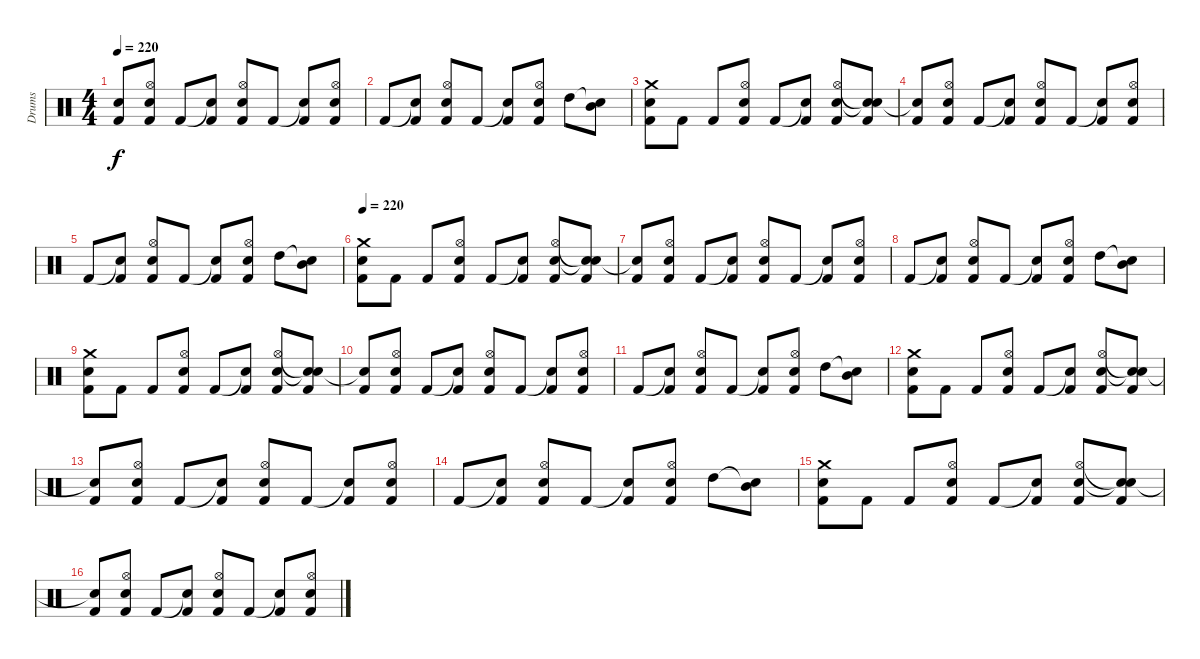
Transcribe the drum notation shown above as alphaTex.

\track ("Drums" "Drums") {instrument percussion}
\staff {score}
\articulation defaults
\ts (4 4)
\tempo 220
\clef neutral
\ks c
("Snare (hit)"{t} "Kick (hit) 2").8{dy f} ("Hi-Hat (open)" "Electric Snare (hit)" "Kick (hit) 2").8 "Kick (hit) 2".8 ("Snare (hit)"{t} "Kick (hit) 2").8 ("Hi-Hat (open)" "Electric Snare (hit)" "Kick (hit) 2").8 "Kick (hit) 2".8 ("Snare (hit)"{t} "Kick (hit) 2").8 ("Hi-Hat (open)" "Electric Snare (hit)" "Kick (hit) 2").8 |
"Kick (hit) 2".8 ("Snare (hit)"{t} "Kick (hit) 2").8 ("Hi-Hat (open)" "Electric Snare (hit)" "Kick (hit) 2").8 "Kick (hit) 2".8 ("Snare (hit)"{t} "Kick (hit) 2").8 ("Hi-Hat (open)" "Electric Snare (hit)" "Kick (hit) 2").8 "High Tom (hit)".8 ("Snare (hit)"{t} "Mid Tom (hit)").8 |
("Crash medium (hit)" "Electric Snare (hit)" "Kick (hit) 2").8 "Kick (hit) 2".8 "Kick (hit) 2".8 ("Hi-Hat (open)" "Electric Snare (hit)" "Kick (hit) 2").8 "Kick (hit) 2".8 ("Snare (hit)"{t} "Kick (hit) 2").8 ("Hi-Hat (open)" "Electric Snare (hit)" "Kick (hit) 2").8 ("Snare (hit)"{t} "Snare (hit)"{t} "Kick (hit) 2").8 |
("Snare (hit)"{t} "Kick (hit) 2").8 ("Hi-Hat (open)" "Electric Snare (hit)" "Kick (hit) 2").8 "Kick (hit) 2".8 ("Snare (hit)"{t} "Kick (hit) 2").8 ("Hi-Hat (open)" "Electric Snare (hit)" "Kick (hit) 2").8 "Kick (hit) 2".8 ("Snare (hit)"{t} "Kick (hit) 2").8 ("Hi-Hat (open)" "Electric Snare (hit)" "Kick (hit) 2").8 |
"Kick (hit) 2".8 ("Snare (hit)"{t} "Kick (hit) 2").8 ("Hi-Hat (open)" "Electric Snare (hit)" "Kick (hit) 2").8 "Kick (hit) 2".8 ("Snare (hit)"{t} "Kick (hit) 2").8 ("Hi-Hat (open)" "Electric Snare (hit)" "Kick (hit) 2").8 "High Tom (hit)".8 ("Snare (hit)"{t} "Mid Tom (hit)").8 |
\tempo 220
("Crash medium (hit)" "Electric Snare (hit)" "Kick (hit) 2").8 "Kick (hit) 2".8 "Kick (hit) 2".8 ("Hi-Hat (open)" "Electric Snare (hit)" "Kick (hit) 2").8 "Kick (hit) 2".8 ("Snare (hit)"{t} "Kick (hit) 2").8 ("Hi-Hat (open)" "Electric Snare (hit)" "Kick (hit) 2").8 ("Snare (hit)"{t} "Snare (hit)"{t} "Kick (hit) 2").8 |
("Snare (hit)"{t} "Kick (hit) 2").8 ("Hi-Hat (open)" "Electric Snare (hit)" "Kick (hit) 2").8 "Kick (hit) 2".8 ("Snare (hit)"{t} "Kick (hit) 2").8 ("Hi-Hat (open)" "Electric Snare (hit)" "Kick (hit) 2").8 "Kick (hit) 2".8 ("Snare (hit)"{t} "Kick (hit) 2").8 ("Hi-Hat (open)" "Electric Snare (hit)" "Kick (hit) 2").8 |
"Kick (hit) 2".8 ("Snare (hit)"{t} "Kick (hit) 2").8 ("Hi-Hat (open)" "Electric Snare (hit)" "Kick (hit) 2").8 "Kick (hit) 2".8 ("Snare (hit)"{t} "Kick (hit) 2").8 ("Hi-Hat (open)" "Electric Snare (hit)" "Kick (hit) 2").8 "High Tom (hit)".8 ("Snare (hit)"{t} "Mid Tom (hit)").8 |
("Crash medium (hit)" "Electric Snare (hit)" "Kick (hit) 2").8 "Kick (hit) 2".8 "Kick (hit) 2".8 ("Hi-Hat (open)" "Electric Snare (hit)" "Kick (hit) 2").8 "Kick (hit) 2".8 ("Snare (hit)"{t} "Kick (hit) 2").8 ("Hi-Hat (open)" "Electric Snare (hit)" "Kick (hit) 2").8 ("Snare (hit)"{t} "Snare (hit)"{t} "Kick (hit) 2").8 |
("Snare (hit)"{t} "Kick (hit) 2").8 ("Hi-Hat (open)" "Electric Snare (hit)" "Kick (hit) 2").8 "Kick (hit) 2".8 ("Snare (hit)"{t} "Kick (hit) 2").8 ("Hi-Hat (open)" "Electric Snare (hit)" "Kick (hit) 2").8 "Kick (hit) 2".8 ("Snare (hit)"{t} "Kick (hit) 2").8 ("Hi-Hat (open)" "Electric Snare (hit)" "Kick (hit) 2").8 |
"Kick (hit) 2".8 ("Snare (hit)"{t} "Kick (hit) 2").8 ("Hi-Hat (open)" "Electric Snare (hit)" "Kick (hit) 2").8 "Kick (hit) 2".8 ("Snare (hit)"{t} "Kick (hit) 2").8 ("Hi-Hat (open)" "Electric Snare (hit)" "Kick (hit) 2").8 "High Tom (hit)".8 ("Snare (hit)"{t} "Mid Tom (hit)").8 |
("Crash medium (hit)" "Electric Snare (hit)" "Kick (hit) 2").8 "Kick (hit) 2".8 "Kick (hit) 2".8 ("Hi-Hat (open)" "Electric Snare (hit)" "Kick (hit) 2").8 "Kick (hit) 2".8 ("Snare (hit)"{t} "Kick (hit) 2").8 ("Hi-Hat (open)" "Electric Snare (hit)" "Kick (hit) 2").8 ("Snare (hit)"{t} "Snare (hit)"{t} "Kick (hit) 2").8 |
("Snare (hit)"{t} "Kick (hit) 2").8 ("Hi-Hat (open)" "Electric Snare (hit)" "Kick (hit) 2").8 "Kick (hit) 2".8 ("Snare (hit)"{t} "Kick (hit) 2").8 ("Hi-Hat (open)" "Electric Snare (hit)" "Kick (hit) 2").8 "Kick (hit) 2".8 ("Snare (hit)"{t} "Kick (hit) 2").8 ("Hi-Hat (open)" "Electric Snare (hit)" "Kick (hit) 2").8 |
"Kick (hit) 2".8 ("Snare (hit)"{t} "Kick (hit) 2").8 ("Hi-Hat (open)" "Electric Snare (hit)" "Kick (hit) 2").8 "Kick (hit) 2".8 ("Snare (hit)"{t} "Kick (hit) 2").8 ("Hi-Hat (open)" "Electric Snare (hit)" "Kick (hit) 2").8 "High Tom (hit)".8 ("Snare (hit)"{t} "Mid Tom (hit)").8 |
("Crash medium (hit)" "Electric Snare (hit)" "Kick (hit) 2").8 "Kick (hit) 2".8 "Kick (hit) 2".8 ("Hi-Hat (open)" "Electric Snare (hit)" "Kick (hit) 2").8 "Kick (hit) 2".8 ("Snare (hit)"{t} "Kick (hit) 2").8 ("Hi-Hat (open)" "Electric Snare (hit)" "Kick (hit) 2").8 ("Snare (hit)"{t} "Snare (hit)"{t} "Kick (hit) 2").8 |
("Snare (hit)"{t} "Kick (hit) 2").8 ("Hi-Hat (open)" "Electric Snare (hit)" "Kick (hit) 2").8 "Kick (hit) 2".8 ("Snare (hit)"{t} "Kick (hit) 2").8 ("Hi-Hat (open)" "Electric Snare (hit)" "Kick (hit) 2").8 "Kick (hit) 2".8 ("Snare (hit)"{t} "Kick (hit) 2").8 ("Hi-Hat (open)" "Electric Snare (hit)" "Kick (hit) 2").8
